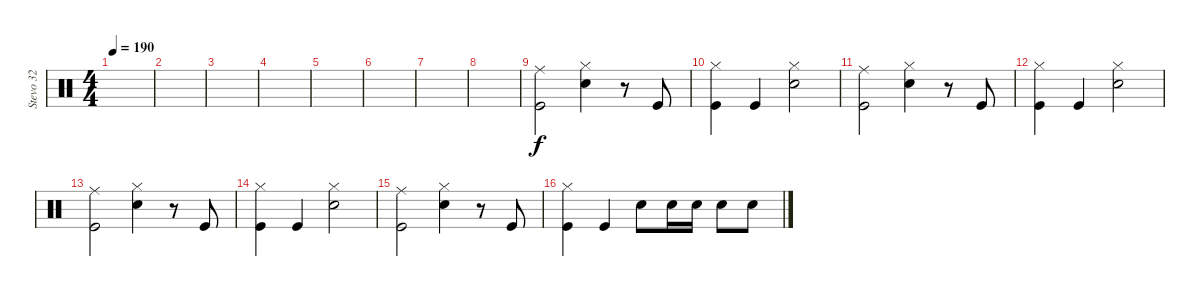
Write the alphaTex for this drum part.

\track ("Stevo 32" "Stevo 32") {instrument percussion}
\staff {score}
\articulation defaults
\ts (4 4)
\tempo 190
\clef neutral
\ks c
|
|
|
|
|
|
|
|
("Ride (middle)" "Kick (hit)").2 ("Hi-Hat (closed)" "Electric Snare (hit)").4 r.8 "Kick (hit)".8 |
("Hi-Hat (closed)" "Kick (hit)").4 "Kick (hit)".4 ("Hi-Hat (closed)" "Electric Snare (hit)").2 |
("Ride (middle)" "Kick (hit)").2 ("Hi-Hat (closed)" "Electric Snare (hit)").4 r.8 "Kick (hit)".8 |
("Hi-Hat (closed)" "Kick (hit)").4 "Kick (hit)".4 ("Hi-Hat (closed)" "Electric Snare (hit)").2 |
("Ride (middle)" "Kick (hit)").2 ("Hi-Hat (closed)" "Electric Snare (hit)").4 r.8 "Kick (hit)".8 |
("Hi-Hat (closed)" "Kick (hit)").4 "Kick (hit)".4 ("Hi-Hat (closed)" "Electric Snare (hit)").2 |
("Ride (middle)" "Kick (hit)").2 ("Hi-Hat (closed)" "Electric Snare (hit)").4 r.8 "Kick (hit)".8 |
("Hi-Hat (closed)" "Kick (hit)").4 "Kick (hit)".4 "Electric Snare (hit)".8 "Electric Snare (hit)".16 "Electric Snare (hit)".16 "Electric Snare (hit)".8 "Electric Snare (hit)".8
